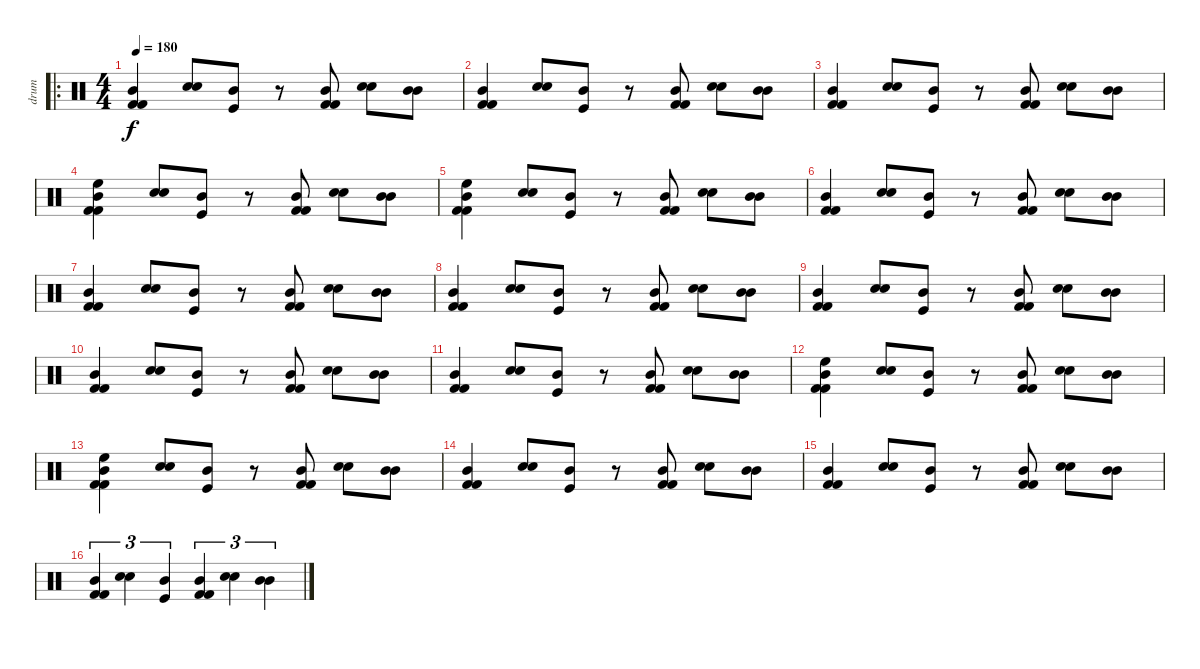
\track ("drum" "drum") {instrument percussion}
\staff {score}
\articulation defaults
\ro
\ts (4 4)
\tempo 180
\clef neutral
\ks c
("Kick (hit) 2" "Mid Tom (hit)" "Kick (hit) 2").4{dy f} ("Electric Snare (hit)" "Electric Snare (hit)").8 ("Kick (hit)" "Mid Tom (hit)").8 r.8 ("Mid Tom (hit)" "Kick (hit) 2" "Kick (hit) 2").8 ("Electric Snare (hit)" "Electric Snare (hit)").8 ("Mid Tom (hit)" "Mid Tom (hit)").8 |
("Kick (hit) 2" "Mid Tom (hit)" "Kick (hit) 2").4 ("Electric Snare (hit)" "Electric Snare (hit)").8 ("Kick (hit)" "Mid Tom (hit)").8 r.8 ("Mid Tom (hit)" "Kick (hit) 2" "Kick (hit) 2").8 ("Electric Snare (hit)" "Electric Snare (hit)").8 ("Mid Tom (hit)" "Mid Tom (hit)").8 |
("Kick (hit) 2" "Mid Tom (hit)" "Kick (hit) 2").4 ("Electric Snare (hit)" "Electric Snare (hit)").8 ("Kick (hit)" "Mid Tom (hit)").8 r.8 ("Mid Tom (hit)" "Kick (hit) 2" "Kick (hit) 2").8 ("Electric Snare (hit)" "Electric Snare (hit)").8 ("Mid Tom (hit)" "Mid Tom (hit)").8 |
("Kick (hit) 2" "Mid Tom (hit)" "Kick (hit) 2" "High Floor Tom (hit)").4 ("Electric Snare (hit)" "Electric Snare (hit)").8 ("Kick (hit)" "Mid Tom (hit)").8 r.8 ("Mid Tom (hit)" "Kick (hit) 2" "Kick (hit) 2").8 ("Electric Snare (hit)" "Electric Snare (hit)").8 ("Mid Tom (hit)" "Mid Tom (hit)").8 |
("Kick (hit) 2" "Mid Tom (hit)" "Kick (hit) 2" "High Floor Tom (hit)").4 ("Electric Snare (hit)" "Electric Snare (hit)").8 ("Kick (hit)" "Mid Tom (hit)").8 r.8 ("Mid Tom (hit)" "Kick (hit) 2" "Kick (hit) 2").8 ("Electric Snare (hit)" "Electric Snare (hit)").8 ("Mid Tom (hit)" "Mid Tom (hit)").8 |
("Kick (hit) 2" "Mid Tom (hit)" "Kick (hit) 2").4 ("Electric Snare (hit)" "Electric Snare (hit)").8 ("Kick (hit)" "Mid Tom (hit)").8 r.8 ("Mid Tom (hit)" "Kick (hit) 2" "Kick (hit) 2").8 ("Electric Snare (hit)" "Electric Snare (hit)").8 ("Mid Tom (hit)" "Mid Tom (hit)").8 |
("Kick (hit) 2" "Mid Tom (hit)" "Kick (hit) 2").4 ("Electric Snare (hit)" "Electric Snare (hit)").8 ("Kick (hit)" "Mid Tom (hit)").8 r.8 ("Mid Tom (hit)" "Kick (hit) 2" "Kick (hit) 2").8 ("Electric Snare (hit)" "Electric Snare (hit)").8 ("Mid Tom (hit)" "Mid Tom (hit)").8 |
("Kick (hit) 2" "Mid Tom (hit)" "Kick (hit) 2").4 ("Electric Snare (hit)" "Electric Snare (hit)").8 ("Kick (hit)" "Mid Tom (hit)").8 r.8 ("Mid Tom (hit)" "Kick (hit) 2" "Kick (hit) 2").8 ("Electric Snare (hit)" "Electric Snare (hit)").8 ("Mid Tom (hit)" "Mid Tom (hit)").8 |
("Kick (hit) 2" "Mid Tom (hit)" "Kick (hit) 2").4 ("Electric Snare (hit)" "Electric Snare (hit)").8 ("Kick (hit)" "Mid Tom (hit)").8 r.8 ("Mid Tom (hit)" "Kick (hit) 2" "Kick (hit) 2").8 ("Electric Snare (hit)" "Electric Snare (hit)").8 ("Mid Tom (hit)" "Mid Tom (hit)").8 |
("Kick (hit) 2" "Mid Tom (hit)" "Kick (hit) 2").4 ("Electric Snare (hit)" "Electric Snare (hit)").8 ("Kick (hit)" "Mid Tom (hit)").8 r.8 ("Mid Tom (hit)" "Kick (hit) 2" "Kick (hit) 2").8 ("Electric Snare (hit)" "Electric Snare (hit)").8 ("Mid Tom (hit)" "Mid Tom (hit)").8 |
("Kick (hit) 2" "Mid Tom (hit)" "Kick (hit) 2").4 ("Electric Snare (hit)" "Electric Snare (hit)").8 ("Kick (hit)" "Mid Tom (hit)").8 r.8 ("Mid Tom (hit)" "Kick (hit) 2" "Kick (hit) 2").8 ("Electric Snare (hit)" "Electric Snare (hit)").8 ("Mid Tom (hit)" "Mid Tom (hit)").8 |
("Kick (hit) 2" "Mid Tom (hit)" "Kick (hit) 2" "High Floor Tom (hit)").4 ("Electric Snare (hit)" "Electric Snare (hit)").8 ("Kick (hit)" "Mid Tom (hit)").8 r.8 ("Mid Tom (hit)" "Kick (hit) 2" "Kick (hit) 2").8 ("Electric Snare (hit)" "Electric Snare (hit)").8 ("Mid Tom (hit)" "Mid Tom (hit)").8 |
("Kick (hit) 2" "Mid Tom (hit)" "Kick (hit) 2" "High Floor Tom (hit)").4 ("Electric Snare (hit)" "Electric Snare (hit)").8 ("Kick (hit)" "Mid Tom (hit)").8 r.8 ("Mid Tom (hit)" "Kick (hit) 2" "Kick (hit) 2").8 ("Electric Snare (hit)" "Electric Snare (hit)").8 ("Mid Tom (hit)" "Mid Tom (hit)").8 |
("Kick (hit) 2" "Mid Tom (hit)" "Kick (hit) 2").4 ("Electric Snare (hit)" "Electric Snare (hit)").8 ("Kick (hit)" "Mid Tom (hit)").8 r.8 ("Mid Tom (hit)" "Kick (hit) 2" "Kick (hit) 2").8 ("Electric Snare (hit)" "Electric Snare (hit)").8 ("Mid Tom (hit)" "Mid Tom (hit)").8 |
("Kick (hit) 2" "Mid Tom (hit)" "Kick (hit) 2").4 ("Electric Snare (hit)" "Electric Snare (hit)").8 ("Kick (hit)" "Mid Tom (hit)").8 r.8 ("Mid Tom (hit)" "Kick (hit) 2" "Kick (hit) 2").8 ("Electric Snare (hit)" "Electric Snare (hit)").8 ("Mid Tom (hit)" "Mid Tom (hit)").8 |
("Kick (hit) 2" "Mid Tom (hit)" "Kick (hit) 2").4{tu (3 2)} ("Electric Snare (hit)" "Electric Snare (hit)").4{tu (3 2)} ("Kick (hit)" "Mid Tom (hit)").4{tu (3 2)} ("Kick (hit) 2" "Kick (hit) 2" "Mid Tom (hit)").4{tu (3 2)} ("Electric Snare (hit)" "Electric Snare (hit)").4{tu (3 2)} ("Mid Tom (hit)" "Mid Tom (hit)").4{tu (3 2)}
